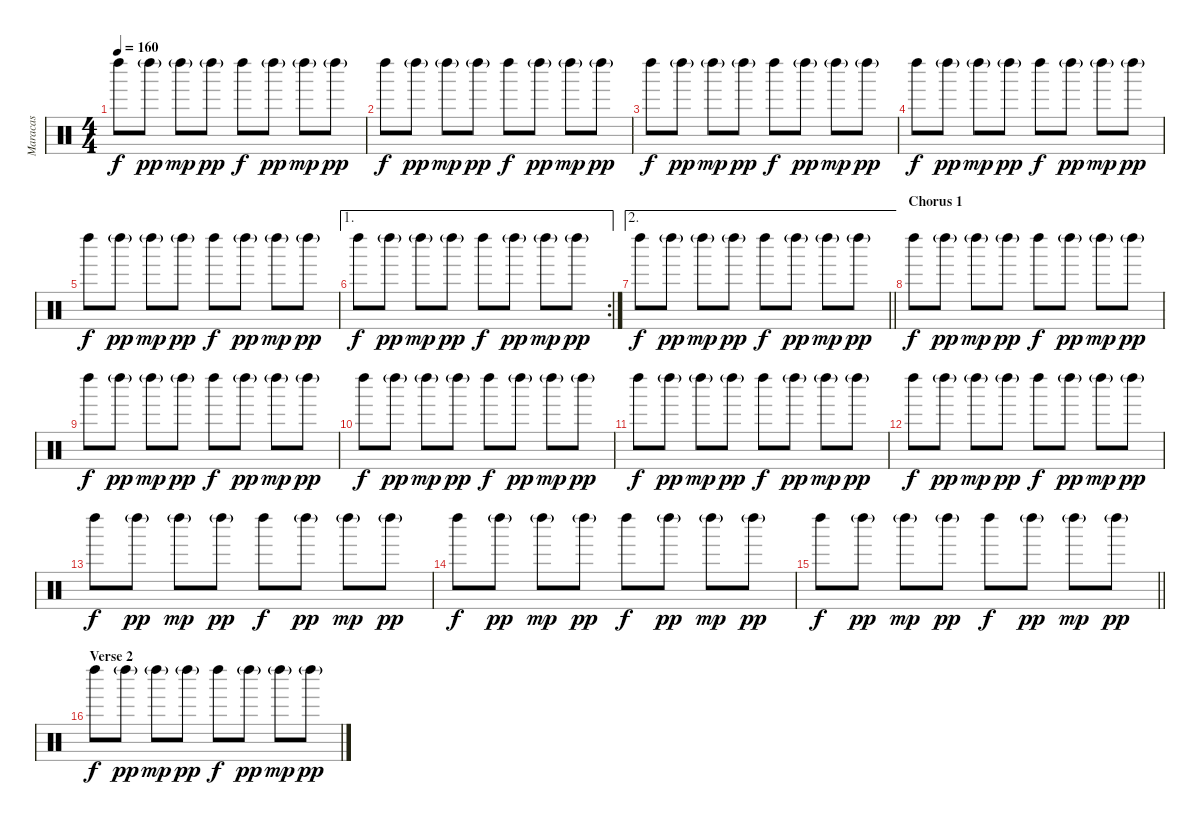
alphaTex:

\track ("Maracas" "Maracas") {instrument percussion}
\staff {score}
\articulation defaults
\ts (4 4)
\tempo 160
\clef neutral
\ks c "Left Maraca (hit)".8{dy f} "Left Maraca (hit)"{g}.8{dy pp} "Left Maraca (hit)"{g}.8{dy mp} "Left Maraca (hit)"{g}.8{dy pp} "Left Maraca (hit)".8{dy f} "Left Maraca (hit)"{g}.8{dy pp} "Left Maraca (hit)"{g}.8{dy mp} "Left Maraca (hit)"{g}.8{dy pp}
|
"Left Maraca (hit)".8{dy f} "Left Maraca (hit)"{g}.8{dy pp} "Left Maraca (hit)"{g}.8{dy mp} "Left Maraca (hit)"{g}.8{dy pp} "Left Maraca (hit)".8{dy f} "Left Maraca (hit)"{g}.8{dy pp} "Left Maraca (hit)"{g}.8{dy mp} "Left Maraca (hit)"{g}.8{dy pp} |
"Left Maraca (hit)".8{dy f} "Left Maraca (hit)"{g}.8{dy pp} "Left Maraca (hit)"{g}.8{dy mp} "Left Maraca (hit)"{g}.8{dy pp} "Left Maraca (hit)".8{dy f} "Left Maraca (hit)"{g}.8{dy pp} "Left Maraca (hit)"{g}.8{dy mp} "Left Maraca (hit)"{g}.8{dy pp} |
"Left Maraca (hit)".8{dy f} "Left Maraca (hit)"{g}.8{dy pp} "Left Maraca (hit)"{g}.8{dy mp} "Left Maraca (hit)"{g}.8{dy pp} "Left Maraca (hit)".8{dy f} "Left Maraca (hit)"{g}.8{dy pp} "Left Maraca (hit)"{g}.8{dy mp} "Left Maraca (hit)"{g}.8{dy pp} |
"Left Maraca (hit)".8{dy f} "Left Maraca (hit)"{g}.8{dy pp} "Left Maraca (hit)"{g}.8{dy mp} "Left Maraca (hit)"{g}.8{dy pp} "Left Maraca (hit)".8{dy f} "Left Maraca (hit)"{g}.8{dy pp} "Left Maraca (hit)"{g}.8{dy mp} "Left Maraca (hit)"{g}.8{dy pp} |
\ae 1
\rc 2 "Left Maraca (hit)".8{dy f} "Left Maraca (hit)"{g}.8{dy pp} "Left Maraca (hit)"{g}.8{dy mp} "Left Maraca (hit)"{g}.8{dy pp} "Left Maraca (hit)".8{dy f} "Left Maraca (hit)"{g}.8{dy pp} "Left Maraca (hit)"{g}.8{dy mp} "Left Maraca (hit)"{g}.8{dy pp}
|
\ae 2
\barLineRight lightlight "Left Maraca (hit)".8{dy f} "Left Maraca (hit)"{g}.8{dy pp} "Left Maraca (hit)"{g}.8{dy mp} "Left Maraca (hit)"{g}.8{dy pp} "Left Maraca (hit)".8{dy f} "Left Maraca (hit)"{g}.8{dy pp} "Left Maraca (hit)"{g}.8{dy mp} "Left Maraca (hit)"{g}.8{dy pp}
|
\section ("" "Chorus 1")
"Left Maraca (hit)".8{dy f} "Left Maraca (hit)"{g}.8{dy pp} "Left Maraca (hit)"{g}.8{dy mp} "Left Maraca (hit)"{g}.8{dy pp} "Left Maraca (hit)".8{dy f} "Left Maraca (hit)"{g}.8{dy pp} "Left Maraca (hit)"{g}.8{dy mp} "Left Maraca (hit)"{g}.8{dy pp} |
"Left Maraca (hit)".8{dy f} "Left Maraca (hit)"{g}.8{dy pp} "Left Maraca (hit)"{g}.8{dy mp} "Left Maraca (hit)"{g}.8{dy pp} "Left Maraca (hit)".8{dy f} "Left Maraca (hit)"{g}.8{dy pp} "Left Maraca (hit)"{g}.8{dy mp} "Left Maraca (hit)"{g}.8{dy pp} |
"Left Maraca (hit)".8{dy f} "Left Maraca (hit)"{g}.8{dy pp} "Left Maraca (hit)"{g}.8{dy mp} "Left Maraca (hit)"{g}.8{dy pp} "Left Maraca (hit)".8{dy f} "Left Maraca (hit)"{g}.8{dy pp} "Left Maraca (hit)"{g}.8{dy mp} "Left Maraca (hit)"{g}.8{dy pp} |
"Left Maraca (hit)".8{dy f} "Left Maraca (hit)"{g}.8{dy pp} "Left Maraca (hit)"{g}.8{dy mp} "Left Maraca (hit)"{g}.8{dy pp} "Left Maraca (hit)".8{dy f} "Left Maraca (hit)"{g}.8{dy pp} "Left Maraca (hit)"{g}.8{dy mp} "Left Maraca (hit)"{g}.8{dy pp} |
"Left Maraca (hit)".8{dy f} "Left Maraca (hit)"{g}.8{dy pp} "Left Maraca (hit)"{g}.8{dy mp} "Left Maraca (hit)"{g}.8{dy pp} "Left Maraca (hit)".8{dy f} "Left Maraca (hit)"{g}.8{dy pp} "Left Maraca (hit)"{g}.8{dy mp} "Left Maraca (hit)"{g}.8{dy pp} |
"Left Maraca (hit)".8{dy f} "Left Maraca (hit)"{g}.8{dy pp} "Left Maraca (hit)"{g}.8{dy mp} "Left Maraca (hit)"{g}.8{dy pp} "Left Maraca (hit)".8{dy f} "Left Maraca (hit)"{g}.8{dy pp} "Left Maraca (hit)"{g}.8{dy mp} "Left Maraca (hit)"{g}.8{dy pp} |
"Left Maraca (hit)".8{dy f} "Left Maraca (hit)"{g}.8{dy pp} "Left Maraca (hit)"{g}.8{dy mp} "Left Maraca (hit)"{g}.8{dy pp} "Left Maraca (hit)".8{dy f} "Left Maraca (hit)"{g}.8{dy pp} "Left Maraca (hit)"{g}.8{dy mp} "Left Maraca (hit)"{g}.8{dy pp} |
\barLineRight lightlight "Left Maraca (hit)".8{dy f} "Left Maraca (hit)"{g}.8{dy pp} "Left Maraca (hit)"{g}.8{dy mp} "Left Maraca (hit)"{g}.8{dy pp} "Left Maraca (hit)".8{dy f} "Left Maraca (hit)"{g}.8{dy pp} "Left Maraca (hit)"{g}.8{dy mp} "Left Maraca (hit)"{g}.8{dy pp}
|
\section ("" "Verse 2")
"Left Maraca (hit)".8{dy f} "Left Maraca (hit)"{g}.8{dy pp} "Left Maraca (hit)"{g}.8{dy mp} "Left Maraca (hit)"{g}.8{dy pp} "Left Maraca (hit)".8{dy f} "Left Maraca (hit)"{g}.8{dy pp} "Left Maraca (hit)"{g}.8{dy mp} "Left Maraca (hit)"{g}.8{dy pp}
